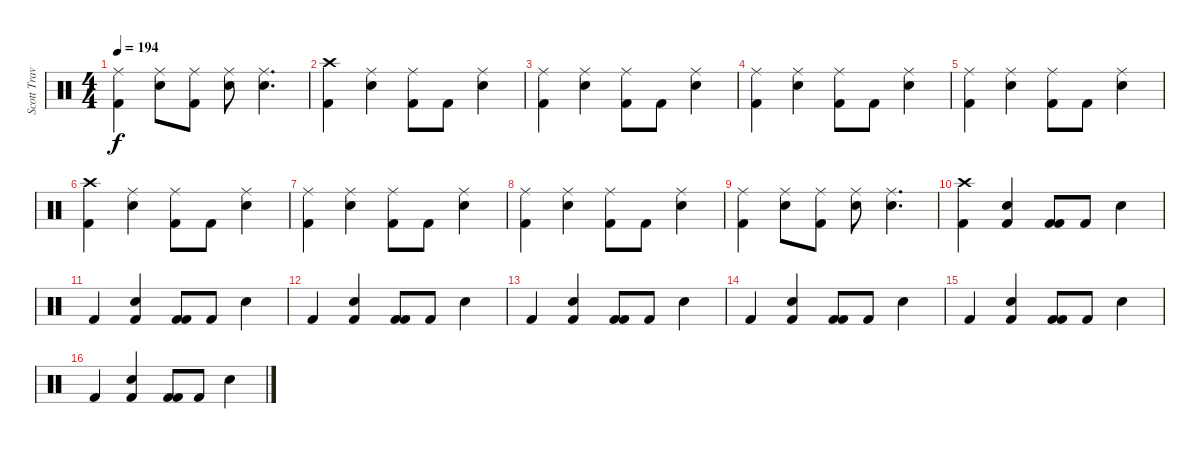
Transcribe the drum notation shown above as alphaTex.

\track ("Scott Travis" "Scott Trav") {instrument percussion}
\staff {score}
\articulation defaults
\ts (4 4)
\tempo 194
\clef neutral
\ks c
("Kick (hit) 2" "Ride (middle)").4{dy f} ("Ride (middle)" "Snare (hit) 2").8 ("Ride (middle)" "Kick (hit) 2").8 ("Ride (middle)" "Snare (hit) 2").8 ("Ride (middle)" "Snare (hit) 2").4{d} |
("Kick (hit) 2" "Crash high (hit)").4 ("Ride (middle)" "Snare (hit) 2").4 ("Ride (middle)" "Kick (hit) 2").8 "Kick (hit) 2".8 ("Snare (hit) 2" "Ride (middle)").4 |
("Kick (hit) 2" "Ride (middle)").4 ("Ride (middle)" "Snare (hit) 2").4 ("Ride (middle)" "Kick (hit) 2").8 "Kick (hit) 2".8 ("Snare (hit) 2" "Ride (middle)").4 |
("Kick (hit) 2" "Ride (middle)").4 ("Ride (middle)" "Snare (hit) 2").4 ("Ride (middle)" "Kick (hit) 2").8 "Kick (hit) 2".8 ("Snare (hit) 2" "Ride (middle)").4 |
("Kick (hit) 2" "Ride (middle)").4 ("Ride (middle)" "Snare (hit) 2").4 ("Ride (middle)" "Kick (hit) 2").8 "Kick (hit) 2".8 ("Snare (hit) 2" "Ride (middle)").4 |
("Kick (hit) 2" "Crash high (hit)").4 ("Ride (middle)" "Snare (hit) 2").4 ("Ride (middle)" "Kick (hit) 2").8 "Kick (hit) 2".8 ("Snare (hit) 2" "Ride (middle)").4 |
("Kick (hit) 2" "Ride (middle)").4 ("Ride (middle)" "Snare (hit) 2").4 ("Ride (middle)" "Kick (hit) 2").8 "Kick (hit) 2".8 ("Snare (hit) 2" "Ride (middle)").4 |
("Kick (hit) 2" "Ride (middle)").4 ("Ride (middle)" "Snare (hit) 2").4 ("Ride (middle)" "Kick (hit) 2").8 "Kick (hit) 2".8 ("Snare (hit) 2" "Ride (middle)").4 |
("Kick (hit) 2" "Ride (middle)").4 ("Ride (middle)" "Snare (hit) 2").8 ("Ride (middle)" "Kick (hit) 2").8 ("Ride (middle)" "Snare (hit) 2").8 ("Ride (middle)" "Snare (hit) 2").4{d} |
("Kick (hit) 2" "Crash high (hit)").4 ("Kick (hit) 2" "Snare (hit) 2").4 ("Kick (hit) 2" "Kick (hit) 2").8 "Kick (hit) 2".8 "Snare (hit) 2".4 |
"Kick (hit) 2".4 ("Kick (hit) 2" "Snare (hit) 2").4 ("Kick (hit) 2" "Kick (hit) 2").8 "Kick (hit) 2".8 "Snare (hit) 2".4 |
"Kick (hit) 2".4 ("Kick (hit) 2" "Snare (hit) 2").4 ("Kick (hit) 2" "Kick (hit) 2").8 "Kick (hit) 2".8 "Snare (hit) 2".4 |
"Kick (hit) 2".4 ("Kick (hit) 2" "Snare (hit) 2").4 ("Kick (hit) 2" "Kick (hit) 2").8 "Kick (hit) 2".8 "Snare (hit) 2".4 |
"Kick (hit) 2".4 ("Kick (hit) 2" "Snare (hit) 2").4 ("Kick (hit) 2" "Kick (hit) 2").8 "Kick (hit) 2".8 "Snare (hit) 2".4 |
"Kick (hit) 2".4 ("Kick (hit) 2" "Snare (hit) 2").4 ("Kick (hit) 2" "Kick (hit) 2").8 "Kick (hit) 2".8 "Snare (hit) 2".4 |
"Kick (hit) 2".4 ("Kick (hit) 2" "Snare (hit) 2").4 ("Kick (hit) 2" "Kick (hit) 2").8 "Kick (hit) 2".8 "Snare (hit) 2".4
